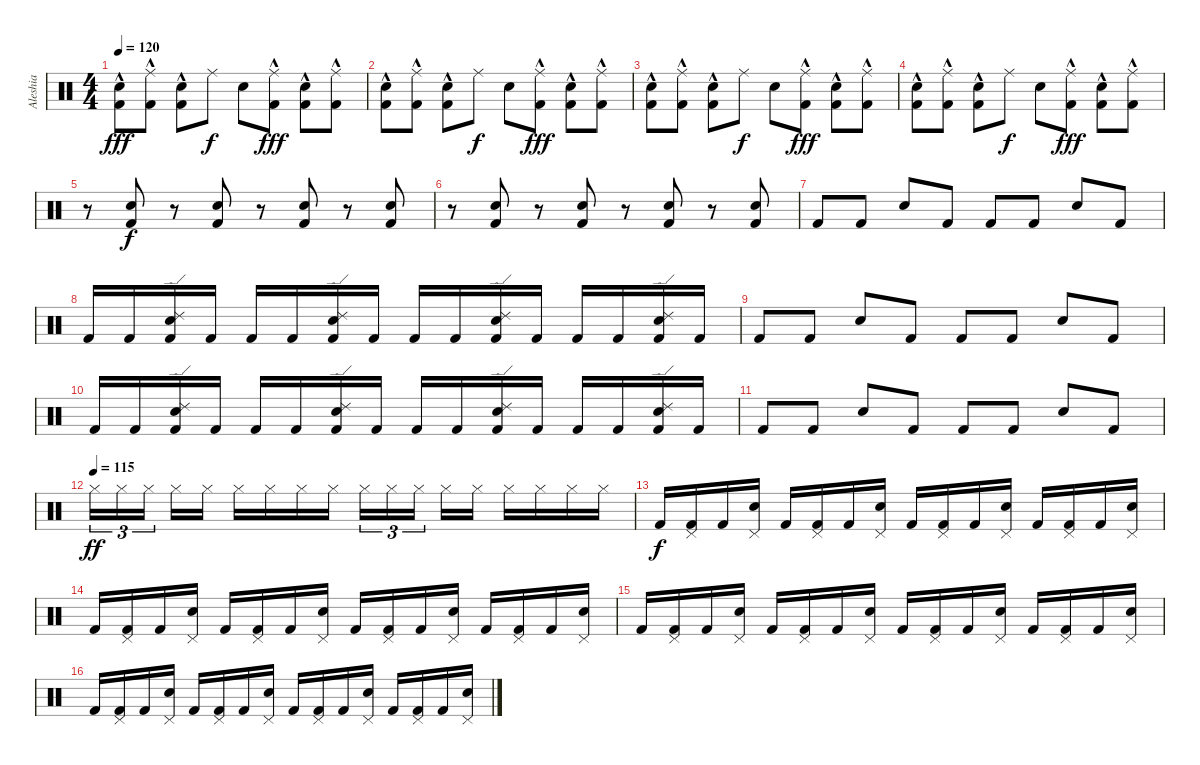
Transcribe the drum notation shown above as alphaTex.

\track ("Aleshia" "Aleshia") {instrument percussion}
\staff {score}
\articulation defaults
\ts (4 4)
\tempo 120
\clef neutral
\ks c
("Snare (hit) 2" "Kick (hit) 2"{hac}).8{dy fff} ("Ride (middle)" "Kick (hit) 2"{hac}).8 ("Snare (hit) 2" "Kick (hit) 2"{hac}).8 "Ride (middle)".8{dy f} "Snare (hit) 2".8 ("Ride (middle)" "Kick (hit) 2"{hac}).8{dy fff} ("Snare (hit) 2" "Kick (hit) 2"{hac}).8 ("Ride (middle)" "Kick (hit) 2"{hac}).8 |
("Snare (hit) 2" "Kick (hit) 2"{hac}).8 ("Ride (middle)" "Kick (hit) 2"{hac}).8 ("Snare (hit) 2" "Kick (hit) 2"{hac}).8 "Ride (middle)".8{dy f} "Snare (hit) 2".8 ("Ride (middle)" "Kick (hit) 2"{hac}).8{dy fff} ("Snare (hit) 2" "Kick (hit) 2"{hac}).8 ("Ride (middle)" "Kick (hit) 2"{hac}).8 |
("Snare (hit) 2" "Kick (hit) 2"{hac}).8 ("Ride (middle)" "Kick (hit) 2"{hac}).8 ("Snare (hit) 2" "Kick (hit) 2"{hac}).8 "Ride (middle)".8{dy f} "Snare (hit) 2".8 ("Ride (middle)" "Kick (hit) 2"{hac}).8{dy fff} ("Snare (hit) 2" "Kick (hit) 2"{hac}).8 ("Ride (middle)" "Kick (hit) 2"{hac}).8 |
("Snare (hit) 2" "Kick (hit) 2"{hac}).8 ("Ride (middle)" "Kick (hit) 2"{hac}).8 ("Snare (hit) 2" "Kick (hit) 2"{hac}).8 "Ride (middle)".8{dy f} "Snare (hit) 2".8 ("Ride (middle)" "Kick (hit) 2"{hac}).8{dy fff} ("Snare (hit) 2" "Kick (hit) 2"{hac}).8 ("Ride (middle)" "Kick (hit) 2"{hac}).8 |
r.8 ("Snare (hit) 2" "Kick (hit) 2").8{dy f} r.8 ("Snare (hit) 2" "Kick (hit) 2").8 r.8 ("Snare (hit) 2" "Kick (hit) 2").8 r.8 ("Snare (hit) 2" "Kick (hit) 2").8 |
r.8 ("Snare (hit) 2" "Kick (hit) 2").8 r.8 ("Snare (hit) 2" "Kick (hit) 2").8 r.8 ("Snare (hit) 2" "Kick (hit) 2").8 r.8 ("Snare (hit) 2" "Kick (hit) 2").8 |
"Kick (hit) 2".8 "Kick (hit) 2".8 "Snare (hit) 2".8 "Kick (hit) 2".8 "Kick (hit) 2".8 "Kick (hit) 2".8 "Snare (hit) 2".8 "Kick (hit) 2".8 |
"Kick (hit) 2".16 "Kick (hit) 2".16 ("Ride (edge) 2" "Snare (hit) 2" "Kick (hit) 2").16 "Kick (hit) 2".16 "Kick (hit) 2".16 "Kick (hit) 2".16 ("Ride (edge) 2" "Snare (hit) 2" "Kick (hit) 2").16 "Kick (hit) 2".16 "Kick (hit) 2".16 "Kick (hit) 2".16 ("Ride (edge) 2" "Snare (hit) 2" "Kick (hit) 2").16 "Kick (hit) 2".16 "Kick (hit) 2".16 "Kick (hit) 2".16 ("Ride (edge) 2" "Snare (hit) 2" "Kick (hit) 2").16 "Kick (hit) 2".16 |
"Kick (hit) 2".8 "Kick (hit) 2".8 "Snare (hit) 2".8 "Kick (hit) 2".8 "Kick (hit) 2".8 "Kick (hit) 2".8 "Snare (hit) 2".8 "Kick (hit) 2".8 |
"Kick (hit) 2".16 "Kick (hit) 2".16 ("Ride (edge) 2" "Snare (hit) 2" "Kick (hit) 2").16 "Kick (hit) 2".16 "Kick (hit) 2".16 "Kick (hit) 2".16 ("Ride (edge) 2" "Snare (hit) 2" "Kick (hit) 2").16 "Kick (hit) 2".16 "Kick (hit) 2".16 "Kick (hit) 2".16 ("Ride (edge) 2" "Snare (hit) 2" "Kick (hit) 2").16 "Kick (hit) 2".16 "Kick (hit) 2".16 "Kick (hit) 2".16 ("Ride (edge) 2" "Snare (hit) 2" "Kick (hit) 2").16 "Kick (hit) 2".16 |
"Kick (hit) 2".8 "Kick (hit) 2".8 "Snare (hit) 2".8 "Kick (hit) 2".8 "Kick (hit) 2".8 "Kick (hit) 2".8 "Snare (hit) 2".8 "Kick (hit) 2".8 |
\tempo (115)
"Hi-Hat (closed)".16{tu (3 2) dy ff} "Hi-Hat (closed)".16{tu (3 2)} "Hi-Hat (closed)".16{tu (3 2) beam splitsecondary} "Hi-Hat (closed)".16 "Hi-Hat (closed)".16 "Hi-Hat (closed)".16 "Hi-Hat (closed)".16 "Hi-Hat (closed)".16 "Hi-Hat (closed)".16 "Hi-Hat (closed)".16{tu (3 2)} "Hi-Hat (closed)".16{tu (3 2)} "Hi-Hat (closed)".16{tu (3 2) beam splitsecondary} "Hi-Hat (closed)".16 "Hi-Hat (closed)".16 "Hi-Hat (closed)".16 "Hi-Hat (closed)".16 "Hi-Hat (closed)".16 "Hi-Hat (closed)".16 |
"Kick (hit) 2".16{dy f} ("Pedal Hi-Hat (hit)" "Kick (hit) 2").16 "Kick (hit) 2".16 ("Pedal Hi-Hat (hit)" "Snare (hit) 2").16 "Kick (hit) 2".16 ("Pedal Hi-Hat (hit)" "Kick (hit) 2").16 "Kick (hit) 2".16 ("Pedal Hi-Hat (hit)" "Snare (hit) 2").16 "Kick (hit) 2".16 ("Pedal Hi-Hat (hit)" "Kick (hit) 2").16 "Kick (hit) 2".16 ("Pedal Hi-Hat (hit)" "Snare (hit) 2").16 "Kick (hit) 2".16 ("Pedal Hi-Hat (hit)" "Kick (hit) 2").16 "Kick (hit) 2".16 ("Pedal Hi-Hat (hit)" "Snare (hit) 2").16 |
"Kick (hit) 2".16 ("Pedal Hi-Hat (hit)" "Kick (hit) 2").16 "Kick (hit) 2".16 ("Pedal Hi-Hat (hit)" "Snare (hit) 2").16 "Kick (hit) 2".16 ("Pedal Hi-Hat (hit)" "Kick (hit) 2").16 "Kick (hit) 2".16 ("Pedal Hi-Hat (hit)" "Snare (hit) 2").16 "Kick (hit) 2".16 ("Pedal Hi-Hat (hit)" "Kick (hit) 2").16 "Kick (hit) 2".16 ("Pedal Hi-Hat (hit)" "Snare (hit) 2").16 "Kick (hit) 2".16 ("Pedal Hi-Hat (hit)" "Kick (hit) 2").16 "Kick (hit) 2".16 ("Pedal Hi-Hat (hit)" "Snare (hit) 2").16 |
"Kick (hit) 2".16 ("Pedal Hi-Hat (hit)" "Kick (hit) 2").16 "Kick (hit) 2".16 ("Pedal Hi-Hat (hit)" "Snare (hit) 2").16 "Kick (hit) 2".16 ("Pedal Hi-Hat (hit)" "Kick (hit) 2").16 "Kick (hit) 2".16 ("Pedal Hi-Hat (hit)" "Snare (hit) 2").16 "Kick (hit) 2".16 ("Pedal Hi-Hat (hit)" "Kick (hit) 2").16 "Kick (hit) 2".16 ("Pedal Hi-Hat (hit)" "Snare (hit) 2").16 "Kick (hit) 2".16 ("Pedal Hi-Hat (hit)" "Kick (hit) 2").16 "Kick (hit) 2".16 ("Pedal Hi-Hat (hit)" "Snare (hit) 2").16 |
"Kick (hit) 2".16 ("Pedal Hi-Hat (hit)" "Kick (hit) 2").16 "Kick (hit) 2".16 ("Pedal Hi-Hat (hit)" "Snare (hit) 2").16 "Kick (hit) 2".16 ("Pedal Hi-Hat (hit)" "Kick (hit) 2").16 "Kick (hit) 2".16 ("Pedal Hi-Hat (hit)" "Snare (hit) 2").16 "Kick (hit) 2".16 ("Pedal Hi-Hat (hit)" "Kick (hit) 2").16 "Kick (hit) 2".16 ("Pedal Hi-Hat (hit)" "Snare (hit) 2").16 "Kick (hit) 2".16 ("Pedal Hi-Hat (hit)" "Kick (hit) 2").16 "Kick (hit) 2".16 ("Pedal Hi-Hat (hit)" "Snare (hit) 2").16
